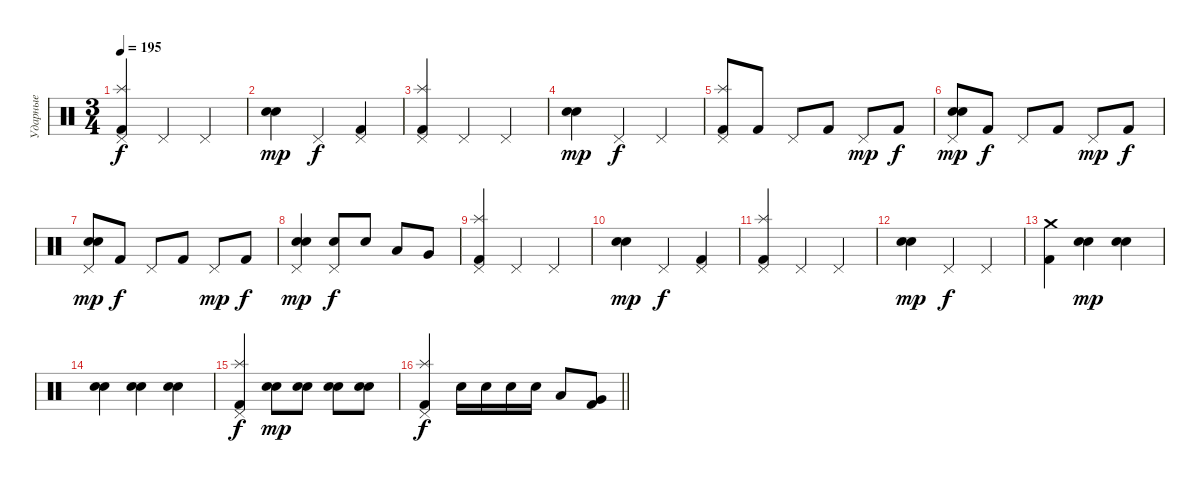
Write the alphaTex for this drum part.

\track ("Ударные" "Ударные") {instrument percussion}
\staff {score}
\articulation defaults
\ts (3 4)
\tempo 195
\clef neutral
\ks c
("Pedal Hi-Hat (hit)" "Splash (hit)" "Kick (hit) 2").4{dy f} "Pedal Hi-Hat (hit)".4 "Pedal Hi-Hat (hit)".4 |
("Electric Snare (hit)" "Snare (hit) 2").4{dy mp} "Pedal Hi-Hat (hit)".4{dy f} ("Pedal Hi-Hat (hit)" "Kick (hit) 2").4 |
("Pedal Hi-Hat (hit)" "Splash (hit)" "Kick (hit) 2").4 "Pedal Hi-Hat (hit)".4 "Pedal Hi-Hat (hit)".4 |
("Electric Snare (hit)" "Snare (hit) 2").4{dy mp} "Pedal Hi-Hat (hit)".4{dy f} "Pedal Hi-Hat (hit)".4 |
("Pedal Hi-Hat (hit)" "Splash (hit)" "Kick (hit) 2").8 "Kick (hit) 2".8 "Pedal Hi-Hat (hit)".8 "Kick (hit) 2".8 "Pedal Hi-Hat (hit)".8{dy mp} "Kick (hit) 2".8{dy f} |
("Pedal Hi-Hat (hit)" "Electric Snare (hit)" "Snare (hit) 2").8{dy mp} "Kick (hit) 2".8{dy f} "Pedal Hi-Hat (hit)".8 "Kick (hit) 2".8 "Pedal Hi-Hat (hit)".8{dy mp} "Kick (hit) 2".8{dy f} |
("Pedal Hi-Hat (hit)" "Electric Snare (hit)" "Snare (hit) 2").8{dy mp} "Kick (hit) 2".8{dy f} "Pedal Hi-Hat (hit)".8 "Kick (hit) 2".8 "Pedal Hi-Hat (hit)".8{dy mp} "Kick (hit) 2".8{dy f} |
("Pedal Hi-Hat (hit)" "Electric Snare (hit)" "Snare (hit) 2").4{dy mp} ("Pedal Hi-Hat (hit)" "Electric Snare (hit)").8{dy f} "Electric Snare (hit)".8 "Low Tom (hit)".8 "Very Low Tom (hit)".8 |
("Pedal Hi-Hat (hit)" "Splash (hit)" "Kick (hit) 2").4 "Pedal Hi-Hat (hit)".4 "Pedal Hi-Hat (hit)".4 |
("Electric Snare (hit)" "Snare (hit) 2").4{dy mp} "Pedal Hi-Hat (hit)".4{dy f} ("Pedal Hi-Hat (hit)" "Kick (hit) 2").4 |
("Pedal Hi-Hat (hit)" "Splash (hit)" "Kick (hit) 2").4 "Pedal Hi-Hat (hit)".4 "Pedal Hi-Hat (hit)".4 |
("Electric Snare (hit)" "Snare (hit) 2").4{dy mp} "Pedal Hi-Hat (hit)".4{dy f} "Pedal Hi-Hat (hit)".4 |
("Crash medium (hit)" "Kick (hit) 2").4 ("Electric Snare (hit)" "Snare (hit) 2").4{dy mp} ("Electric Snare (hit)" "Snare (hit) 2").4 |
("Electric Snare (hit)" "Snare (hit) 2").4 ("Electric Snare (hit)" "Snare (hit) 2").4 ("Electric Snare (hit)" "Snare (hit) 2").4 |
("Splash (hit)" "Pedal Hi-Hat (hit)" "Kick (hit) 2").4{dy f} ("Electric Snare (hit)" "Snare (hit) 2").8{dy mp} ("Electric Snare (hit)" "Snare (hit) 2").8 ("Electric Snare (hit)" "Snare (hit) 2").8 ("Electric Snare (hit)" "Snare (hit) 2").8 |
\barLineRight lightlight
("Splash (hit)" "Pedal Hi-Hat (hit)" "Kick (hit) 2").4{dy f} "Electric Snare (hit)".16 "Electric Snare (hit)".16 "Electric Snare (hit)".16 "Electric Snare (hit)".16 "Low Tom (hit)".8 ("Very Low Tom (hit)" "Kick (hit) 2").8
